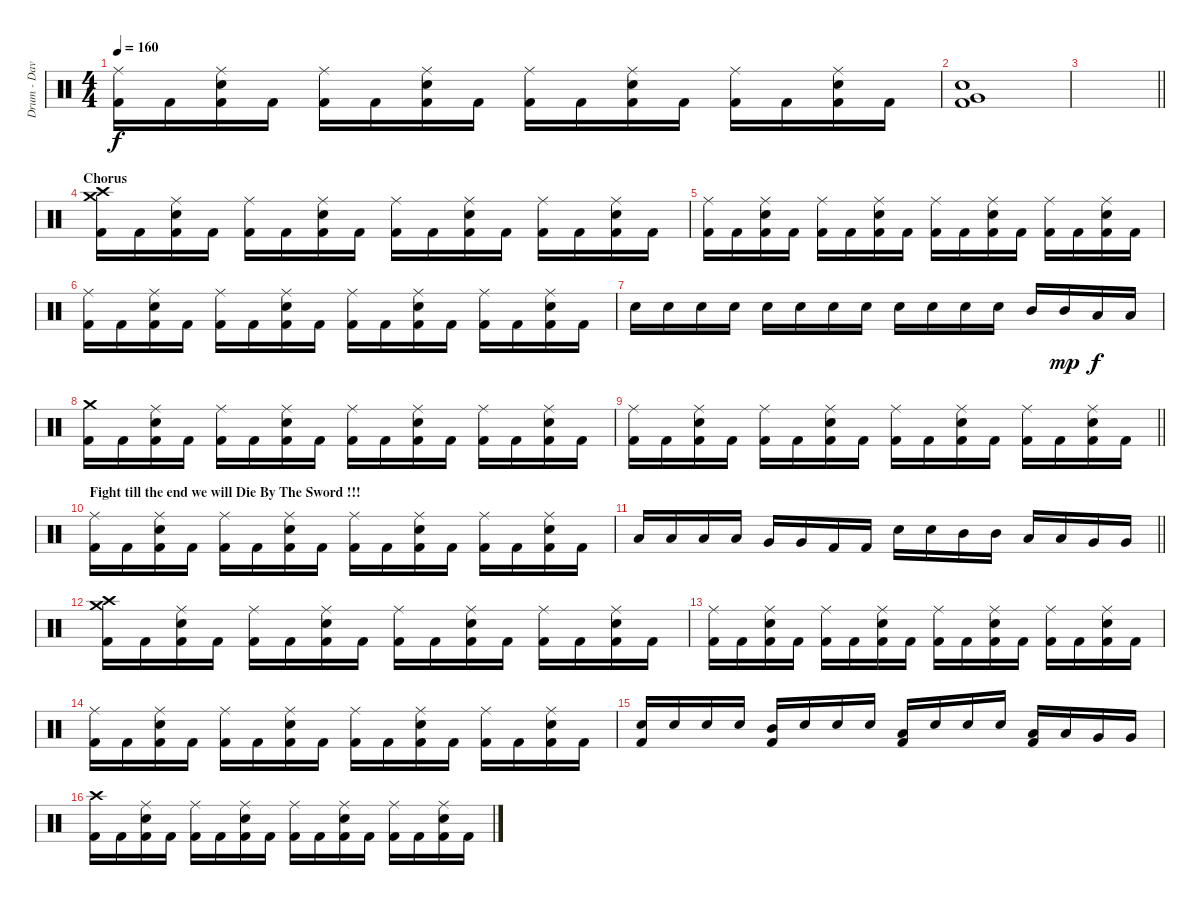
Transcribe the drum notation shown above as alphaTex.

\track ("Drum - Dave Mackintosh" "Drum - Dav") {instrument percussion}
\staff {score}
\articulation defaults
\ts (4 4)
\tempo 160
\clef neutral
\ks c
("Ride (middle)" "Kick (hit) 2").16{dy f} "Kick (hit) 2".16 ("Ride (middle)" "Electric Snare (hit)" "Kick (hit) 2").16 "Kick (hit) 2".16 ("Ride (middle)" "Kick (hit) 2").16 "Kick (hit) 2".16 ("Ride (middle)" "Electric Snare (hit)" "Kick (hit) 2").16 "Kick (hit) 2".16 ("Ride (middle)" "Kick (hit) 2").16 "Kick (hit) 2".16 ("Ride (middle)" "Electric Snare (hit)" "Kick (hit) 2").16 "Kick (hit) 2".16 ("Ride (middle)" "Kick (hit) 2").16 "Kick (hit) 2".16 ("Ride (middle)" "Electric Snare (hit)" "Kick (hit) 2").16 "Kick (hit) 2".16 |
("Very Low Tom (hit)" "Electric Snare (hit)" "Kick (hit) 2").1 |
\barLineRight lightlight
|
\section ("" "Chorus")
("Crash high (hit)" "Crash medium (hit)" "Kick (hit) 2").16 "Kick (hit) 2".16 ("Ride (middle)" "Electric Snare (hit)" "Kick (hit) 2").16 "Kick (hit) 2".16 ("Ride (middle)" "Kick (hit) 2").16 "Kick (hit) 2".16 ("Ride (middle)" "Electric Snare (hit)" "Kick (hit) 2").16 "Kick (hit) 2".16 ("Ride (middle)" "Kick (hit) 2").16 "Kick (hit) 2".16 ("Ride (middle)" "Electric Snare (hit)" "Kick (hit) 2").16 "Kick (hit) 2".16 ("Ride (middle)" "Kick (hit) 2").16 "Kick (hit) 2".16 ("Ride (middle)" "Electric Snare (hit)" "Kick (hit) 2").16 "Kick (hit) 2".16 |
("Ride (middle)" "Kick (hit) 2").16 "Kick (hit) 2".16 ("Ride (middle)" "Electric Snare (hit)" "Kick (hit) 2").16 "Kick (hit) 2".16 ("Ride (middle)" "Kick (hit) 2").16 "Kick (hit) 2".16 ("Ride (middle)" "Electric Snare (hit)" "Kick (hit) 2").16 "Kick (hit) 2".16 ("Ride (middle)" "Kick (hit) 2").16 "Kick (hit) 2".16 ("Ride (middle)" "Electric Snare (hit)" "Kick (hit) 2").16 "Kick (hit) 2".16 ("Ride (middle)" "Kick (hit) 2").16 "Kick (hit) 2".16 ("Ride (middle)" "Electric Snare (hit)" "Kick (hit) 2").16 "Kick (hit) 2".16 |
("Ride (middle)" "Kick (hit) 2").16 "Kick (hit) 2".16 ("Ride (middle)" "Electric Snare (hit)" "Kick (hit) 2").16 "Kick (hit) 2".16 ("Ride (middle)" "Kick (hit) 2").16 "Kick (hit) 2".16 ("Ride (middle)" "Electric Snare (hit)" "Kick (hit) 2").16 "Kick (hit) 2".16 ("Ride (middle)" "Kick (hit) 2").16 "Kick (hit) 2".16 ("Ride (middle)" "Electric Snare (hit)" "Kick (hit) 2").16 "Kick (hit) 2".16 ("Ride (middle)" "Kick (hit) 2").16 "Kick (hit) 2".16 ("Ride (middle)" "Electric Snare (hit)" "Kick (hit) 2").16 "Kick (hit) 2".16 |
"Electric Snare (hit)".16 "Electric Snare (hit)".16 "Electric Snare (hit)".16 "Electric Snare (hit)".16 "Electric Snare (hit)".16 "Electric Snare (hit)".16 "Electric Snare (hit)".16 "Electric Snare (hit)".16 "Electric Snare (hit)".16 "Electric Snare (hit)".16 "Electric Snare (hit)".16 "Electric Snare (hit)".16 "Mid Tom (hit)".16 "Mid Tom (hit)".16{dy mp} "Low Tom (hit)".16{dy f} "Low Tom (hit)".16 |
("Crash medium (hit)" "Kick (hit) 2").16 "Kick (hit) 2".16 ("Ride (middle)" "Electric Snare (hit)" "Kick (hit) 2").16 "Kick (hit) 2".16 ("Ride (middle)" "Kick (hit) 2").16 "Kick (hit) 2".16 ("Ride (middle)" "Electric Snare (hit)" "Kick (hit) 2").16 "Kick (hit) 2".16 ("Ride (middle)" "Kick (hit) 2").16 "Kick (hit) 2".16 ("Ride (middle)" "Electric Snare (hit)" "Kick (hit) 2").16 "Kick (hit) 2".16 ("Ride (middle)" "Kick (hit) 2").16 "Kick (hit) 2".16 ("Ride (middle)" "Electric Snare (hit)" "Kick (hit) 2").16 "Kick (hit) 2".16 |
\barLineRight lightlight
("Ride (middle)" "Kick (hit) 2").16 "Kick (hit) 2".16 ("Ride (middle)" "Electric Snare (hit)" "Kick (hit) 2").16 "Kick (hit) 2".16 ("Ride (middle)" "Kick (hit) 2").16 "Kick (hit) 2".16 ("Ride (middle)" "Electric Snare (hit)" "Kick (hit) 2").16 "Kick (hit) 2".16 ("Ride (middle)" "Kick (hit) 2").16 "Kick (hit) 2".16 ("Ride (middle)" "Electric Snare (hit)" "Kick (hit) 2").16 "Kick (hit) 2".16 ("Ride (middle)" "Kick (hit) 2").16 "Kick (hit) 2".16 ("Ride (middle)" "Electric Snare (hit)" "Kick (hit) 2").16 "Kick (hit) 2".16 |
\section ("" "Fight till the end we will Die By The Sword !!!")
("Ride (middle)" "Kick (hit) 2").16 "Kick (hit) 2".16 ("Ride (middle)" "Electric Snare (hit)" "Kick (hit) 2").16 "Kick (hit) 2".16 ("Ride (middle)" "Kick (hit) 2").16 "Kick (hit) 2".16 ("Ride (middle)" "Electric Snare (hit)" "Kick (hit) 2").16 "Kick (hit) 2".16 ("Ride (middle)" "Kick (hit) 2").16 "Kick (hit) 2".16 ("Ride (middle)" "Electric Snare (hit)" "Kick (hit) 2").16 "Kick (hit) 2".16 ("Ride (middle)" "Kick (hit) 2").16 "Kick (hit) 2".16 ("Ride (middle)" "Electric Snare (hit)" "Kick (hit) 2").16 "Kick (hit) 2".16 |
\barLineRight lightlight "Low Tom (hit)".16 "Low Tom (hit)".16 "Low Tom (hit)".16 "Low Tom (hit)".16 "Very Low Tom (hit)".16 "Very Low Tom (hit)".16 "Kick (hit) 2".16 "Kick (hit) 2".16 "Electric Snare (hit)".16 "Electric Snare (hit)".16 "Mid Tom (hit)".16 "Mid Tom (hit)".16 "Low Tom (hit)".16 "Low Tom (hit)".16 "Very Low Tom (hit)".16 "Very Low Tom (hit)".16
|
("Crash high (hit)" "Crash medium (hit)" "Kick (hit) 2").16 "Kick (hit) 2".16 ("Ride (middle)" "Electric Snare (hit)" "Kick (hit) 2").16 "Kick (hit) 2".16 ("Ride (middle)" "Kick (hit) 2").16 "Kick (hit) 2".16 ("Ride (middle)" "Electric Snare (hit)" "Kick (hit) 2").16 "Kick (hit) 2".16 ("Ride (middle)" "Kick (hit) 2").16 "Kick (hit) 2".16 ("Ride (middle)" "Electric Snare (hit)" "Kick (hit) 2").16 "Kick (hit) 2".16 ("Ride (middle)" "Kick (hit) 2").16 "Kick (hit) 2".16 ("Ride (middle)" "Electric Snare (hit)" "Kick (hit) 2").16 "Kick (hit) 2".16 |
("Ride (middle)" "Kick (hit) 2").16 "Kick (hit) 2".16 ("Ride (middle)" "Electric Snare (hit)" "Kick (hit) 2").16 "Kick (hit) 2".16 ("Ride (middle)" "Kick (hit) 2").16 "Kick (hit) 2".16 ("Ride (middle)" "Electric Snare (hit)" "Kick (hit) 2").16 "Kick (hit) 2".16 ("Ride (middle)" "Kick (hit) 2").16 "Kick (hit) 2".16 ("Ride (middle)" "Electric Snare (hit)" "Kick (hit) 2").16 "Kick (hit) 2".16 ("Ride (middle)" "Kick (hit) 2").16 "Kick (hit) 2".16 ("Ride (middle)" "Electric Snare (hit)" "Kick (hit) 2").16 "Kick (hit) 2".16 |
("Ride (middle)" "Kick (hit) 2").16 "Kick (hit) 2".16 ("Ride (middle)" "Electric Snare (hit)" "Kick (hit) 2").16 "Kick (hit) 2".16 ("Ride (middle)" "Kick (hit) 2").16 "Kick (hit) 2".16 ("Ride (middle)" "Electric Snare (hit)" "Kick (hit) 2").16 "Kick (hit) 2".16 ("Ride (middle)" "Kick (hit) 2").16 "Kick (hit) 2".16 ("Ride (middle)" "Electric Snare (hit)" "Kick (hit) 2").16 "Kick (hit) 2".16 ("Ride (middle)" "Kick (hit) 2").16 "Kick (hit) 2".16 ("Ride (middle)" "Electric Snare (hit)" "Kick (hit) 2").16 "Kick (hit) 2".16 |
("Electric Snare (hit)" "Kick (hit) 2").16 "Electric Snare (hit)".16 "Electric Snare (hit)".16 "Electric Snare (hit)".16 ("Mid Tom (hit)" "Kick (hit) 2").16 "Electric Snare (hit)".16 "Electric Snare (hit)".16 "Electric Snare (hit)".16 ("Low Tom (hit)" "Kick (hit) 2").16 "Electric Snare (hit)".16 "Electric Snare (hit)".16 "Electric Snare (hit)".16 ("Low Tom (hit)" "Kick (hit) 2").16 "Low Tom (hit)".16 "Very Low Tom (hit)".16 "Very Low Tom (hit)".16 |
("Crash high (hit)" "Kick (hit) 2").16 "Kick (hit) 2".16 ("Ride (middle)" "Electric Snare (hit)" "Kick (hit) 2").16 "Kick (hit) 2".16 ("Ride (middle)" "Kick (hit) 2").16 "Kick (hit) 2".16 ("Ride (middle)" "Electric Snare (hit)" "Kick (hit) 2").16 "Kick (hit) 2".16 ("Ride (middle)" "Kick (hit) 2").16 "Kick (hit) 2".16 ("Ride (middle)" "Electric Snare (hit)" "Kick (hit) 2").16 "Kick (hit) 2".16 ("Ride (middle)" "Kick (hit) 2").16 "Kick (hit) 2".16 ("Ride (middle)" "Electric Snare (hit)" "Kick (hit) 2").16 "Kick (hit) 2".16
